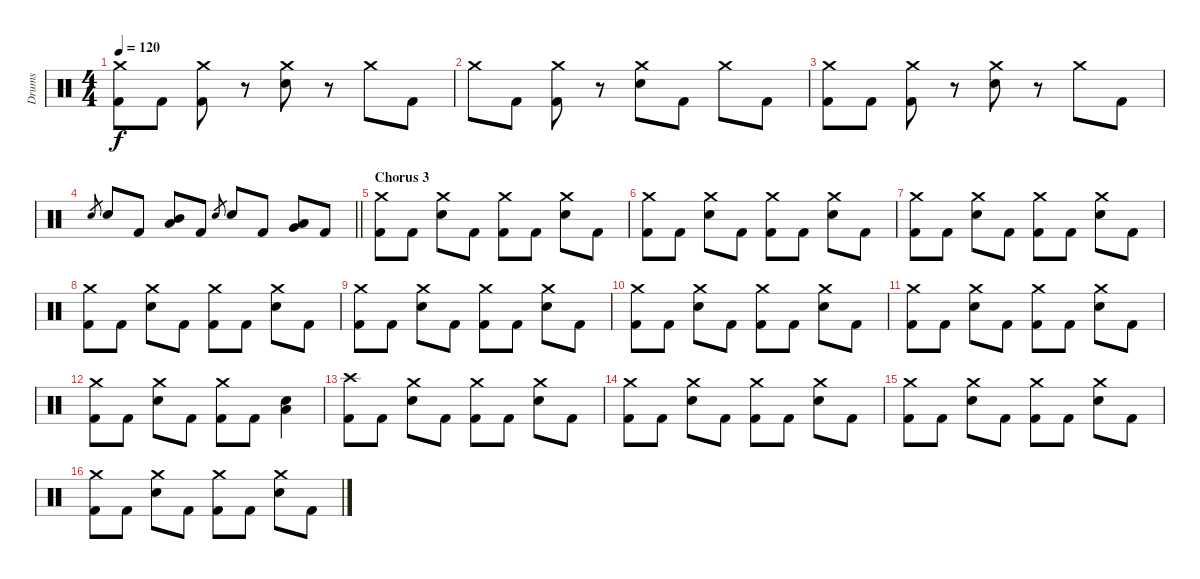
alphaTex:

\track ("Drums " "Drums ") {instrument percussion}
\staff {score}
\articulation defaults
\ts (4 4)
\tempo 120
\clef neutral
\ks c
("Crash medium (hit)" "Kick (hit) 2").8{dy f} "Kick (hit) 2".8 ("Crash medium (hit)" "Kick (hit) 2").8 r.8 ("Crash medium (hit)" "Electric Snare (hit)").8 r.8 "Crash medium (hit)".8 "Kick (hit) 2".8 |
"Crash medium (hit)".8 "Kick (hit) 2".8 ("Crash medium (hit)" "Kick (hit) 2").8 r.8 ("Crash medium (hit)" "Electric Snare (hit)").8 "Kick (hit) 2".8 "Crash medium (hit)".8 "Kick (hit) 2".8 |
("Crash medium (hit)" "Kick (hit) 2").8 "Kick (hit) 2".8 ("Crash medium (hit)" "Kick (hit) 2").8 r.8 ("Crash medium (hit)" "Electric Snare (hit)").8 r.8 "Crash medium (hit)".8 "Kick (hit) 2".8 |
\barLineRight lightlight "Electric Snare (hit)".8{gr} "Electric Snare (hit)".8 "Kick (hit) 2".8
("Mid Tom (hit)" "Low Tom (hit)").8 "Kick (hit) 2".8 "Electric Snare (hit)".8{gr} "Electric Snare (hit)".8 "Kick (hit) 2".8 ("Very Low Tom (hit)" "Low Tom (hit)").8 "Kick (hit) 2".8 |
\section ("" "Chorus 3")
("Crash medium (hit)" "Kick (hit) 2").8 "Kick (hit) 2".8 ("Crash medium (hit)" "Electric Snare (hit)").8 "Kick (hit) 2".8 ("Crash medium (hit)" "Kick (hit) 2").8 "Kick (hit) 2".8 ("Crash medium (hit)" "Electric Snare (hit)").8 "Kick (hit) 2".8 |
("Crash medium (hit)" "Kick (hit) 2").8 "Kick (hit) 2".8 ("Crash medium (hit)" "Electric Snare (hit)").8 "Kick (hit) 2".8 ("Crash medium (hit)" "Kick (hit) 2").8 "Kick (hit) 2".8 ("Crash medium (hit)" "Electric Snare (hit)").8 "Kick (hit) 2".8 |
("Crash medium (hit)" "Kick (hit) 2").8 "Kick (hit) 2".8 ("Crash medium (hit)" "Electric Snare (hit)").8 "Kick (hit) 2".8 ("Crash medium (hit)" "Kick (hit) 2").8 "Kick (hit) 2".8 ("Crash medium (hit)" "Electric Snare (hit)").8 "Kick (hit) 2".8 |
("Crash medium (hit)" "Kick (hit) 2").8 "Kick (hit) 2".8 ("Crash medium (hit)" "Electric Snare (hit)").8 "Kick (hit) 2".8 ("Crash medium (hit)" "Kick (hit) 2").8 "Kick (hit) 2".8 ("Crash medium (hit)" "Electric Snare (hit)").8 "Kick (hit) 2".8 |
("Crash medium (hit)" "Kick (hit) 2").8 "Kick (hit) 2".8 ("Crash medium (hit)" "Electric Snare (hit)").8 "Kick (hit) 2".8 ("Crash medium (hit)" "Kick (hit) 2").8 "Kick (hit) 2".8 ("Crash medium (hit)" "Electric Snare (hit)").8 "Kick (hit) 2".8 |
("Crash medium (hit)" "Kick (hit) 2").8 "Kick (hit) 2".8 ("Crash medium (hit)" "Electric Snare (hit)").8 "Kick (hit) 2".8 ("Crash medium (hit)" "Kick (hit) 2").8 "Kick (hit) 2".8 ("Crash medium (hit)" "Electric Snare (hit)").8 "Kick (hit) 2".8 |
("Crash medium (hit)" "Kick (hit) 2").8 "Kick (hit) 2".8 ("Crash medium (hit)" "Electric Snare (hit)").8 "Kick (hit) 2".8 ("Crash medium (hit)" "Kick (hit) 2").8 "Kick (hit) 2".8 ("Crash medium (hit)" "Electric Snare (hit)").8 "Kick (hit) 2".8 |
("Crash medium (hit)" "Kick (hit) 2").8 "Kick (hit) 2".8 ("Crash medium (hit)" "Electric Snare (hit)").8 "Kick (hit) 2".8 ("Crash medium (hit)" "Kick (hit) 2").8 "Kick (hit) 2".8 ("Low Tom (hit)" "Electric Snare (hit)").4 |
("Crash high (hit)" "Kick (hit) 2").8 "Kick (hit) 2".8 ("Crash medium (hit)" "Electric Snare (hit)").8 "Kick (hit) 2".8 ("Crash medium (hit)" "Kick (hit) 2").8 "Kick (hit) 2".8 ("Crash medium (hit)" "Electric Snare (hit)").8 "Kick (hit) 2".8 |
("Crash medium (hit)" "Kick (hit) 2").8 "Kick (hit) 2".8 ("Crash medium (hit)" "Electric Snare (hit)").8 "Kick (hit) 2".8 ("Crash medium (hit)" "Kick (hit) 2").8 "Kick (hit) 2".8 ("Crash medium (hit)" "Electric Snare (hit)").8 "Kick (hit) 2".8 |
("Crash medium (hit)" "Kick (hit) 2").8 "Kick (hit) 2".8 ("Crash medium (hit)" "Electric Snare (hit)").8 "Kick (hit) 2".8 ("Crash medium (hit)" "Kick (hit) 2").8 "Kick (hit) 2".8 ("Crash medium (hit)" "Electric Snare (hit)").8 "Kick (hit) 2".8 |
("Crash medium (hit)" "Kick (hit) 2").8 "Kick (hit) 2".8 ("Crash medium (hit)" "Electric Snare (hit)").8 "Kick (hit) 2".8 ("Crash medium (hit)" "Kick (hit) 2").8 "Kick (hit) 2".8 ("Crash medium (hit)" "Electric Snare (hit)").8 "Kick (hit) 2".8
